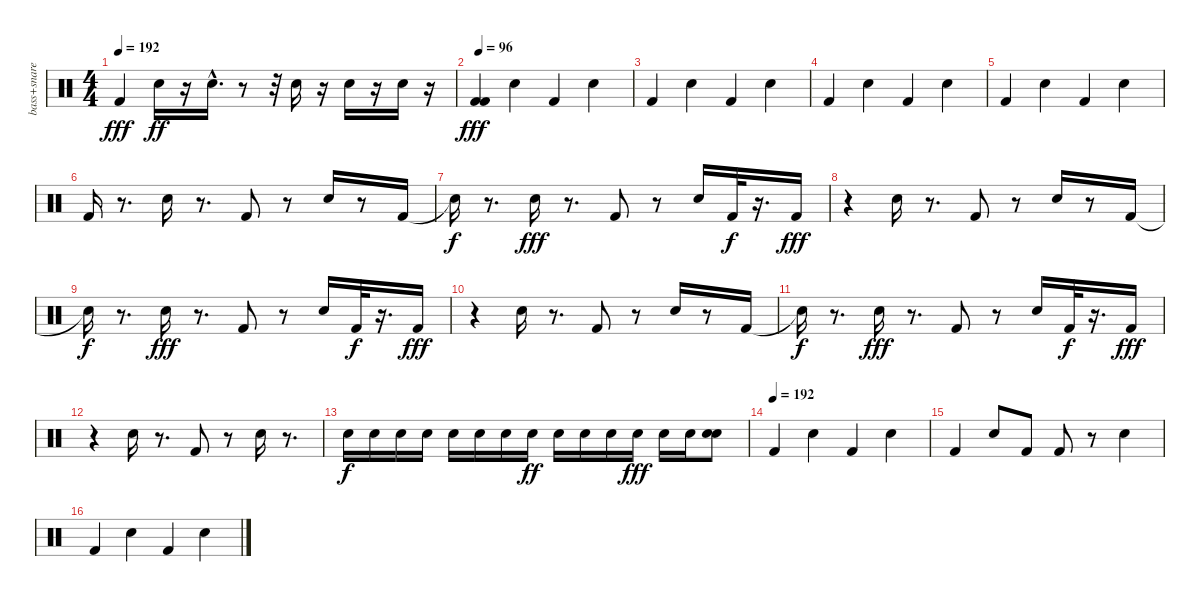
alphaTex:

\track ("bass+snare" "bass+snare") {instrument percussion}
\staff {score}
\articulation defaults
\ts (4 4)
\tempo 192
\clef neutral
\ks c "Kick (hit) 2".4{dy fff} "Snare (hit) 2".16{dy ff}
r.16 "Snare (hit) 2"{hac}.16{d} r.8 r.32 "Snare (hit) 2".16 r.16 "Snare (hit) 2".16 r.16 "Snare (hit) 2".16 r.16 |
\tempo 96
("Kick (hit) 2" "Kick (hit) 2").4{dy fff} "Snare (hit) 2".4 "Kick (hit) 2".4 "Snare (hit) 2".4 |
"Kick (hit) 2".4 "Snare (hit) 2".4 "Kick (hit) 2".4 "Snare (hit) 2".4 |
"Kick (hit) 2".4 "Snare (hit) 2".4 "Kick (hit) 2".4 "Snare (hit) 2".4 |
"Kick (hit) 2".4 "Snare (hit) 2".4 "Kick (hit) 2".4 "Snare (hit) 2".4 |
"Kick (hit) 2".16 r.8{d} "Snare (hit) 2".16 r.8{d} "Kick (hit) 2".8 r.8 "Snare (hit) 2".16 r.8 "Kick (hit) 2".16 |
"Snare (hit)"{t}.16{dy f} r.8{d} "Snare (hit) 2".16{dy fff} r.8{d} "Kick (hit) 2".8 r.8 "Snare (hit) 2".16 "Kick (hit) 2".32{dy f} r.16{d} "Kick (hit) 2".16{dy fff} |
r.4 "Snare (hit) 2".16 r.8{d} "Kick (hit) 2".8 r.8 "Snare (hit) 2".16 r.8 "Kick (hit) 2".16 |
"Snare (hit)"{t}.16{dy f} r.8{d} "Snare (hit) 2".16{dy fff} r.8{d} "Kick (hit) 2".8 r.8 "Snare (hit) 2".16 "Kick (hit) 2".32{dy f} r.16{d} "Kick (hit) 2".16{dy fff} |
r.4 "Snare (hit) 2".16 r.8{d} "Kick (hit) 2".8 r.8 "Snare (hit) 2".16 r.8 "Kick (hit) 2".16 |
"Snare (hit)"{t}.16{dy f} r.8{d} "Snare (hit) 2".16{dy fff} r.8{d} "Kick (hit) 2".8 r.8 "Snare (hit) 2".16 "Kick (hit) 2".32{dy f} r.16{d} "Kick (hit) 2".16{dy fff} |
r.4 "Snare (hit) 2".16 r.8{d} "Kick (hit) 2".8 r.8 "Snare (hit) 2".16 r.8{d} |
"Snare (hit) 2".16{dy f} "Snare (hit) 2".16 "Snare (hit) 2".16 "Snare (hit) 2".16 "Snare (hit) 2".16 "Snare (hit) 2".16 "Snare (hit) 2".16 "Snare (hit) 2".16{dy ff} "Snare (hit) 2".16 "Snare (hit) 2".16 "Snare (hit) 2".16 "Snare (hit) 2".16{dy fff} "Snare (hit) 2".16 "Snare (hit) 2".16 ("Electric Snare (hit)" "Electric Snare (hit)").8 |
\tempo (192)
"Kick (hit) 2".4 "Snare (hit) 2".4 "Kick (hit) 2".4 "Snare (hit) 2".4 |
"Kick (hit) 2".4 "Snare (hit) 2".8 "Kick (hit) 2".8 "Kick (hit) 2".8 r.8 "Snare (hit) 2".4 |
"Kick (hit) 2".4 "Snare (hit) 2".4 "Kick (hit) 2".4 "Snare (hit) 2".4
